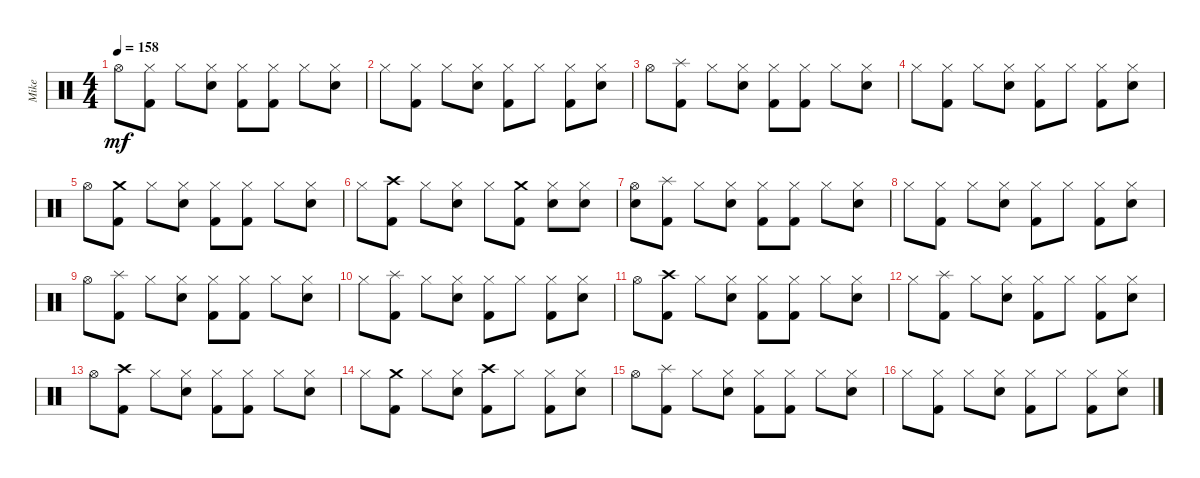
\track ("Mike" "Mike") {instrument percussion}
\staff {score}
\articulation defaults
\ts (4 4)
\tempo 158
\clef neutral
\ks c "Hi-Hat (open)".8{dy mf}
("Hi-Hat (closed)" "Kick (hit) 2").8 "Hi-Hat (closed)".8 ("Hi-Hat (closed)" "Electric Snare (hit)").8 ("Hi-Hat (closed)" "Kick (hit) 2").8 ("Hi-Hat (closed)" "Kick (hit) 2").8 "Hi-Hat (closed)".8 ("Hi-Hat (closed)" "Electric Snare (hit)").8 |
"Hi-Hat (closed)".8 ("Hi-Hat (closed)" "Kick (hit) 2").8 "Hi-Hat (closed)".8 ("Hi-Hat (closed)" "Electric Snare (hit)").8 ("Hi-Hat (closed)" "Kick (hit) 2").8 "Hi-Hat (closed)".8 ("Hi-Hat (closed)" "Kick (hit) 2").8 ("Hi-Hat (closed)" "Electric Snare (hit)").8 |
"Hi-Hat (open)".8 ("Splash (hit)" "Kick (hit) 2").8 "Hi-Hat (closed)".8 ("Hi-Hat (closed)" "Electric Snare (hit)").8 ("Hi-Hat (closed)" "Kick (hit) 2").8 ("Hi-Hat (closed)" "Kick (hit) 2").8 "Hi-Hat (closed)".8 ("Hi-Hat (closed)" "Electric Snare (hit)").8 |
"Hi-Hat (closed)".8 ("Hi-Hat (closed)" "Kick (hit) 2").8 "Hi-Hat (closed)".8 ("Hi-Hat (closed)" "Electric Snare (hit)").8 ("Hi-Hat (closed)" "Kick (hit) 2").8 "Hi-Hat (closed)".8 ("Hi-Hat (closed)" "Kick (hit) 2").8 ("Hi-Hat (closed)" "Electric Snare (hit)").8 |
"Hi-Hat (open)".8 ("Crash medium (hit)" "Kick (hit) 2").8 "Hi-Hat (closed)".8 ("Hi-Hat (closed)" "Electric Snare (hit)").8 ("Hi-Hat (closed)" "Kick (hit) 2").8 ("Hi-Hat (closed)" "Kick (hit) 2").8 "Hi-Hat (closed)".8 ("Hi-Hat (closed)" "Electric Snare (hit)").8 |
"Hi-Hat (closed)".8 ("Crash high (hit)" "Kick (hit) 2").8 "Hi-Hat (closed)".8 ("Hi-Hat (closed)" "Electric Snare (hit)").8 "Hi-Hat (closed)".8 ("Crash medium (hit)" "Kick (hit) 2").8 ("Hi-Hat (closed)" "Electric Snare (hit)").8 ("Hi-Hat (closed)" "Electric Snare (hit)").8 |
("Hi-Hat (open)" "Electric Snare (hit)").8 ("Splash (hit)" "Kick (hit) 2").8 "Hi-Hat (closed)".8 ("Hi-Hat (closed)" "Electric Snare (hit)").8 ("Hi-Hat (closed)" "Kick (hit) 2").8 ("Hi-Hat (closed)" "Kick (hit) 2").8 "Hi-Hat (closed)".8 ("Hi-Hat (closed)" "Electric Snare (hit)").8 |
"Hi-Hat (closed)".8 ("Hi-Hat (closed)" "Kick (hit) 2").8 "Hi-Hat (closed)".8 ("Hi-Hat (closed)" "Electric Snare (hit)").8 ("Hi-Hat (closed)" "Kick (hit) 2").8 "Hi-Hat (closed)".8 ("Hi-Hat (closed)" "Kick (hit) 2").8 ("Hi-Hat (closed)" "Electric Snare (hit)").8 |
"Hi-Hat (open)".8 ("Splash (hit)" "Kick (hit) 2").8 "Hi-Hat (closed)".8 ("Hi-Hat (closed)" "Electric Snare (hit)").8 ("Hi-Hat (closed)" "Kick (hit) 2").8 ("Hi-Hat (closed)" "Kick (hit) 2").8 "Hi-Hat (closed)".8 ("Hi-Hat (closed)" "Electric Snare (hit)").8 |
"Hi-Hat (closed)".8 ("Splash (hit)" "Kick (hit) 2").8 "Hi-Hat (closed)".8 ("Hi-Hat (closed)" "Electric Snare (hit)").8 ("Hi-Hat (closed)" "Kick (hit) 2").8 "Hi-Hat (closed)".8 ("Hi-Hat (closed)" "Kick (hit) 2").8 ("Hi-Hat (closed)" "Electric Snare (hit)").8 |
"Hi-Hat (open)".8 ("Crash high (hit)" "Kick (hit) 2").8 "Hi-Hat (closed)".8 ("Hi-Hat (closed)" "Electric Snare (hit)").8 ("Hi-Hat (closed)" "Kick (hit) 2").8 ("Hi-Hat (closed)" "Kick (hit) 2").8 "Hi-Hat (closed)".8 ("Hi-Hat (closed)" "Electric Snare (hit)").8 |
"Hi-Hat (closed)".8 ("Splash (hit)" "Kick (hit) 2").8 "Hi-Hat (closed)".8 ("Hi-Hat (closed)" "Electric Snare (hit)").8 ("Hi-Hat (closed)" "Kick (hit) 2").8 "Hi-Hat (closed)".8 ("Hi-Hat (closed)" "Kick (hit) 2").8 ("Hi-Hat (closed)" "Electric Snare (hit)").8 |
"Hi-Hat (open)".8 ("Crash high (hit)" "Kick (hit) 2").8 "Hi-Hat (closed)".8 ("Hi-Hat (closed)" "Electric Snare (hit)").8 ("Hi-Hat (closed)" "Kick (hit) 2").8 ("Hi-Hat (closed)" "Kick (hit) 2").8 "Hi-Hat (closed)".8 ("Hi-Hat (closed)" "Electric Snare (hit)").8 |
"Hi-Hat (closed)".8 ("Crash medium (hit)" "Kick (hit) 2").8 "Hi-Hat (closed)".8 ("Hi-Hat (closed)" "Electric Snare (hit)").8 ("Crash high (hit)" "Kick (hit) 2").8 "Hi-Hat (closed)".8 ("Hi-Hat (closed)" "Kick (hit) 2").8 ("Hi-Hat (closed)" "Electric Snare (hit)").8 |
"Hi-Hat (open)".8 ("Splash (hit)" "Kick (hit) 2").8 "Hi-Hat (closed)".8 ("Hi-Hat (closed)" "Electric Snare (hit)").8 ("Hi-Hat (closed)" "Kick (hit) 2").8 ("Hi-Hat (closed)" "Kick (hit) 2").8 "Hi-Hat (closed)".8 ("Hi-Hat (closed)" "Electric Snare (hit)").8 |
"Hi-Hat (closed)".8 ("Hi-Hat (closed)" "Kick (hit) 2").8 "Hi-Hat (closed)".8 ("Hi-Hat (closed)" "Electric Snare (hit)").8 ("Hi-Hat (closed)" "Kick (hit) 2").8 "Hi-Hat (closed)".8 ("Hi-Hat (closed)" "Kick (hit) 2").8 ("Hi-Hat (closed)" "Electric Snare (hit)").8
